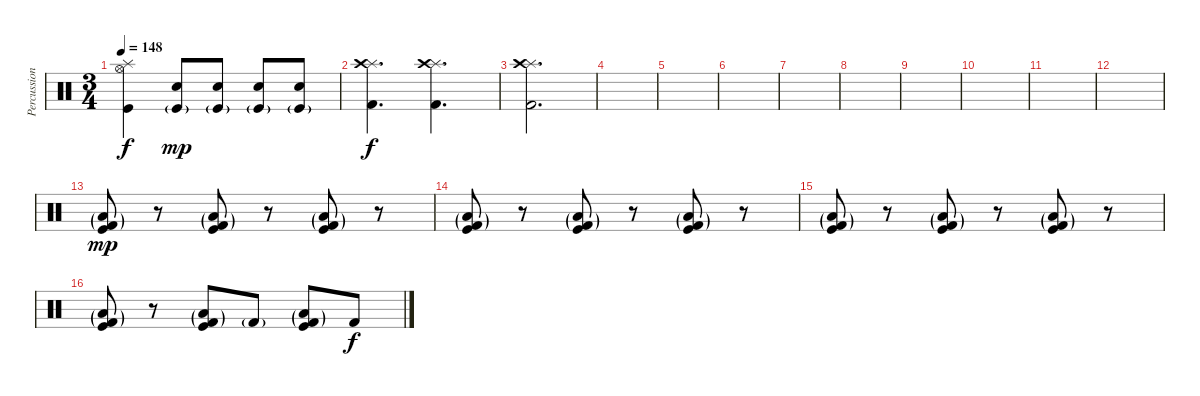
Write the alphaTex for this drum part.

\track ("Percussion" "Percussion") {instrument percussion}
\staff {score}
\articulation defaults
\ts (3 4)
\tempo 148
\clef neutral
\ks c
("Hi-Hat (open)" "Splash (hit)" "Kick (hit)").4{dy f} ("Snare (hit) 2" "Kick (hit)"{g}).8{dy mp} ("Snare (hit) 2" "Kick (hit)"{g}).8 ("Snare (hit) 2" "Kick (hit)"{g}).8 ("Snare (hit) 2" "Kick (hit)"{g}).8 |
("Splash (hit)" "Crash high (hit)" "Kick (hit) 2").4{d dy f} ("Splash (hit)" "Crash high (hit)" "Kick (hit) 2").4{d} |
("Splash (hit)" "Crash high (hit)" "Kick (hit) 2").2{d} |
|
|
|
|
|
|
|
|
|
("Low Floor Tom (hit)"{g} "Kick (hit) 2"{g} "Kick (hit)").8{dy mp volume 10} r.8 ("Low Floor Tom (hit)"{g} "Kick (hit) 2"{g} "Kick (hit)").8 r.8 ("Low Floor Tom (hit)"{g} "Kick (hit) 2"{g} "Kick (hit)").8 r.8 |
("Low Floor Tom (hit)"{g} "Kick (hit) 2"{g} "Kick (hit)").8 r.8 ("Low Floor Tom (hit)"{g} "Kick (hit) 2"{g} "Kick (hit)").8 r.8 ("Low Floor Tom (hit)"{g} "Kick (hit) 2"{g} "Kick (hit)").8 r.8 |
("Low Floor Tom (hit)"{g} "Kick (hit) 2"{g} "Kick (hit)").8 r.8 ("Low Floor Tom (hit)"{g} "Kick (hit) 2"{g} "Kick (hit)").8 r.8 ("Low Floor Tom (hit)"{g} "Kick (hit) 2"{g} "Kick (hit)").8 r.8 |
("Low Floor Tom (hit)"{g} "Kick (hit) 2"{g} "Kick (hit)").8 r.8 ("Low Floor Tom (hit)"{g} "Kick (hit) 2"{g} "Kick (hit)").8 "Kick (hit) 2"{g}.8 ("Low Floor Tom (hit)"{g} "Kick (hit) 2"{g} "Kick (hit)").8 "Kick (hit) 2".8{dy f}
